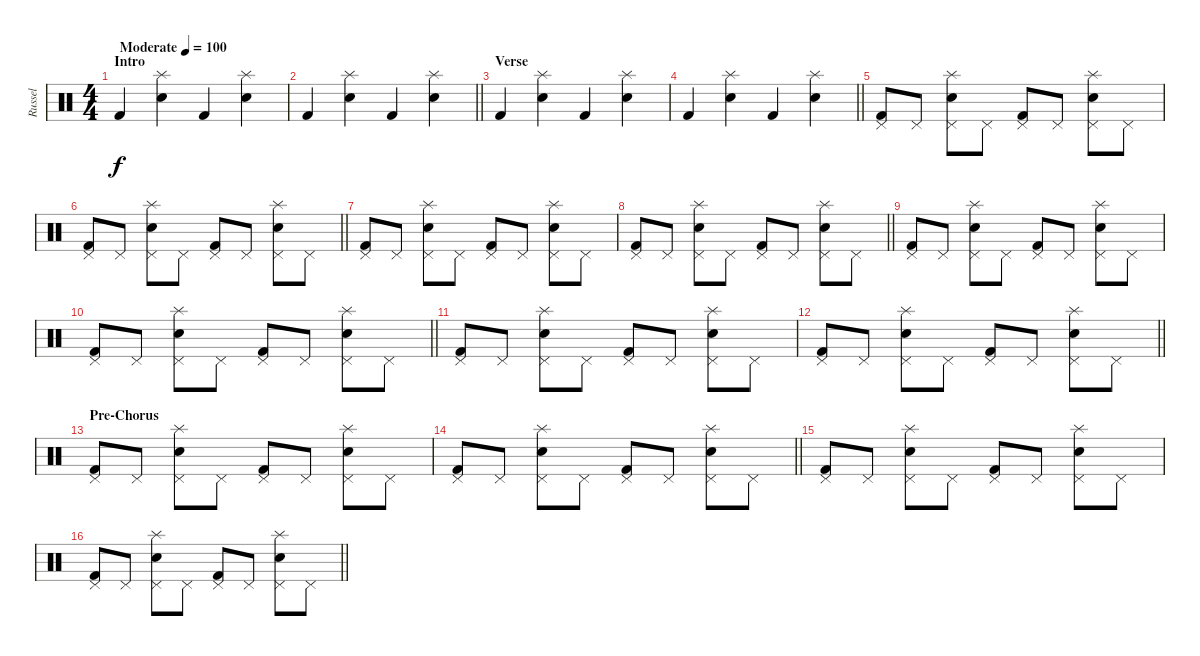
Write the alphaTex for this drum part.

\track ("Russel" "Russel") {instrument percussion}
\staff {score}
\articulation defaults
\ts (4 4)
\section ("" "Intro")
\tempo (100 "Moderate")
\clef neutral
\ks c "Kick (hit) 2".4{dy f}
("Splash (hit)" "Electric Snare (hit)").4 "Kick (hit) 2".4 ("Splash (hit)" "Electric Snare (hit)").4 |
\barLineRight lightlight "Kick (hit) 2".4
("Splash (hit)" "Electric Snare (hit)").4 "Kick (hit) 2".4 ("Splash (hit)" "Electric Snare (hit)").4 |
\section ("" "Verse")
"Kick (hit) 2".4 ("Splash (hit)" "Electric Snare (hit)").4 "Kick (hit) 2".4 ("Splash (hit)" "Electric Snare (hit)").4 |
\barLineRight lightlight "Kick (hit) 2".4
("Splash (hit)" "Electric Snare (hit)").4 "Kick (hit) 2".4 ("Splash (hit)" "Electric Snare (hit)").4 |
("Pedal Hi-Hat (hit)" "Kick (hit) 2").8 "Pedal Hi-Hat (hit)".8 ("Splash (hit)" "Pedal Hi-Hat (hit)" "Electric Snare (hit)").8 "Pedal Hi-Hat (hit)".8 ("Pedal Hi-Hat (hit)" "Kick (hit) 2").8 "Pedal Hi-Hat (hit)".8 ("Splash (hit)" "Pedal Hi-Hat (hit)" "Electric Snare (hit)").8 "Pedal Hi-Hat (hit)".8 |
\barLineRight lightlight
("Pedal Hi-Hat (hit)" "Kick (hit) 2").8 "Pedal Hi-Hat (hit)".8 ("Splash (hit)" "Pedal Hi-Hat (hit)" "Electric Snare (hit)").8 "Pedal Hi-Hat (hit)".8 ("Pedal Hi-Hat (hit)" "Kick (hit) 2").8 "Pedal Hi-Hat (hit)".8 ("Splash (hit)" "Pedal Hi-Hat (hit)" "Electric Snare (hit)").8 "Pedal Hi-Hat (hit)".8 |
("Pedal Hi-Hat (hit)" "Kick (hit) 2").8 "Pedal Hi-Hat (hit)".8 ("Splash (hit)" "Pedal Hi-Hat (hit)" "Electric Snare (hit)").8 "Pedal Hi-Hat (hit)".8 ("Pedal Hi-Hat (hit)" "Kick (hit) 2").8 "Pedal Hi-Hat (hit)".8 ("Splash (hit)" "Pedal Hi-Hat (hit)" "Electric Snare (hit)").8 "Pedal Hi-Hat (hit)".8 |
\barLineRight lightlight
("Pedal Hi-Hat (hit)" "Kick (hit) 2").8 "Pedal Hi-Hat (hit)".8 ("Splash (hit)" "Pedal Hi-Hat (hit)" "Electric Snare (hit)").8 "Pedal Hi-Hat (hit)".8 ("Pedal Hi-Hat (hit)" "Kick (hit) 2").8 "Pedal Hi-Hat (hit)".8 ("Splash (hit)" "Pedal Hi-Hat (hit)" "Electric Snare (hit)").8 "Pedal Hi-Hat (hit)".8 |
("Pedal Hi-Hat (hit)" "Kick (hit) 2").8 "Pedal Hi-Hat (hit)".8 ("Splash (hit)" "Pedal Hi-Hat (hit)" "Electric Snare (hit)").8 "Pedal Hi-Hat (hit)".8 ("Pedal Hi-Hat (hit)" "Kick (hit) 2").8 "Pedal Hi-Hat (hit)".8 ("Splash (hit)" "Pedal Hi-Hat (hit)" "Electric Snare (hit)").8 "Pedal Hi-Hat (hit)".8 |
\barLineRight lightlight
("Pedal Hi-Hat (hit)" "Kick (hit) 2").8 "Pedal Hi-Hat (hit)".8 ("Splash (hit)" "Pedal Hi-Hat (hit)" "Electric Snare (hit)").8 "Pedal Hi-Hat (hit)".8 ("Pedal Hi-Hat (hit)" "Kick (hit) 2").8 "Pedal Hi-Hat (hit)".8 ("Splash (hit)" "Pedal Hi-Hat (hit)" "Electric Snare (hit)").8 "Pedal Hi-Hat (hit)".8 |
("Pedal Hi-Hat (hit)" "Kick (hit) 2").8 "Pedal Hi-Hat (hit)".8 ("Splash (hit)" "Pedal Hi-Hat (hit)" "Electric Snare (hit)").8 "Pedal Hi-Hat (hit)".8 ("Pedal Hi-Hat (hit)" "Kick (hit) 2").8 "Pedal Hi-Hat (hit)".8 ("Splash (hit)" "Pedal Hi-Hat (hit)" "Electric Snare (hit)").8 "Pedal Hi-Hat (hit)".8 |
\barLineRight lightlight
("Pedal Hi-Hat (hit)" "Kick (hit) 2").8 "Pedal Hi-Hat (hit)".8 ("Splash (hit)" "Pedal Hi-Hat (hit)" "Electric Snare (hit)").8 "Pedal Hi-Hat (hit)".8 ("Pedal Hi-Hat (hit)" "Kick (hit) 2").8 "Pedal Hi-Hat (hit)".8 ("Splash (hit)" "Pedal Hi-Hat (hit)" "Electric Snare (hit)").8 "Pedal Hi-Hat (hit)".8 |
\section ("" "Pre-Chorus")
("Pedal Hi-Hat (hit)" "Kick (hit) 2").8 "Pedal Hi-Hat (hit)".8 ("Splash (hit)" "Pedal Hi-Hat (hit)" "Electric Snare (hit)").8 "Pedal Hi-Hat (hit)".8 ("Pedal Hi-Hat (hit)" "Kick (hit) 2").8 "Pedal Hi-Hat (hit)".8 ("Splash (hit)" "Pedal Hi-Hat (hit)" "Electric Snare (hit)").8 "Pedal Hi-Hat (hit)".8 |
\barLineRight lightlight
("Pedal Hi-Hat (hit)" "Kick (hit) 2").8 "Pedal Hi-Hat (hit)".8 ("Splash (hit)" "Pedal Hi-Hat (hit)" "Electric Snare (hit)").8 "Pedal Hi-Hat (hit)".8 ("Pedal Hi-Hat (hit)" "Kick (hit) 2").8 "Pedal Hi-Hat (hit)".8 ("Splash (hit)" "Pedal Hi-Hat (hit)" "Electric Snare (hit)").8 "Pedal Hi-Hat (hit)".8 |
("Pedal Hi-Hat (hit)" "Kick (hit) 2").8 "Pedal Hi-Hat (hit)".8 ("Splash (hit)" "Pedal Hi-Hat (hit)" "Electric Snare (hit)").8 "Pedal Hi-Hat (hit)".8 ("Pedal Hi-Hat (hit)" "Kick (hit) 2").8 "Pedal Hi-Hat (hit)".8 ("Splash (hit)" "Pedal Hi-Hat (hit)" "Electric Snare (hit)").8 "Pedal Hi-Hat (hit)".8 |
\barLineRight lightlight
("Pedal Hi-Hat (hit)" "Kick (hit) 2").8 "Pedal Hi-Hat (hit)".8 ("Splash (hit)" "Pedal Hi-Hat (hit)" "Electric Snare (hit)").8 "Pedal Hi-Hat (hit)".8 ("Pedal Hi-Hat (hit)" "Kick (hit) 2").8 "Pedal Hi-Hat (hit)".8 ("Splash (hit)" "Pedal Hi-Hat (hit)" "Electric Snare (hit)").8 "Pedal Hi-Hat (hit)".8
